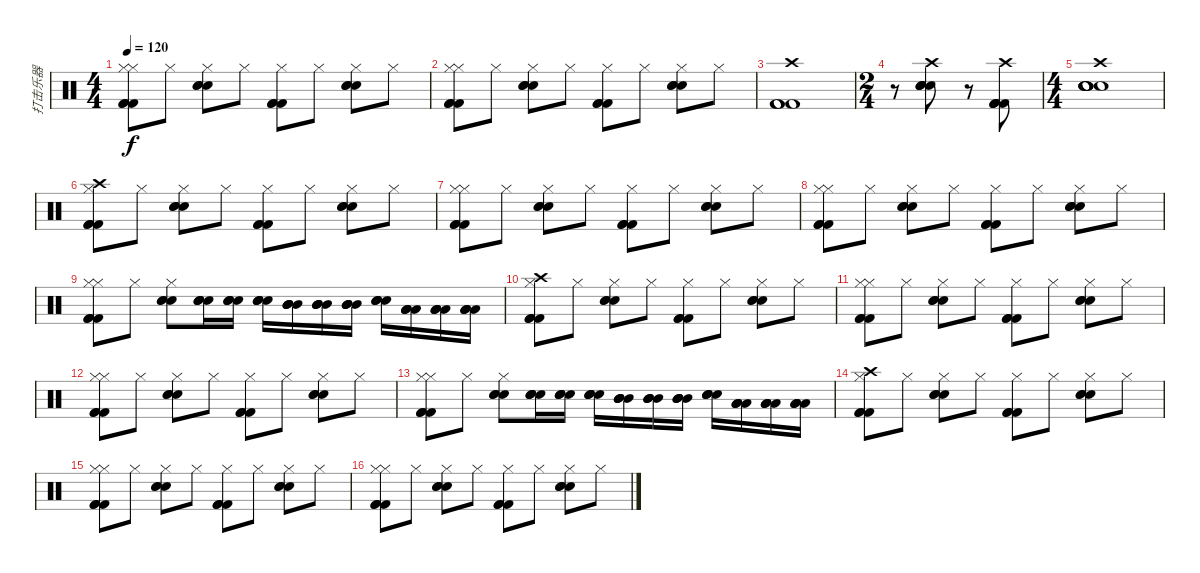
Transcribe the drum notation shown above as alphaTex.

\track ("打击乐器" "打击乐器") {instrument percussion}
\staff {score}
\articulation defaults
\ts (4 4)
\tempo 120
\clef neutral
\ks c
("Kick (hit) 2" "Kick (hit) 2" "Kick (hit) 2" "Hi-Hat (closed)" "Hi-Hat (closed)").8{dy f} "Hi-Hat (closed)".8 ("Snare (hit) 2" "Snare (hit) 2" "Snare (hit) 2" "Hi-Hat (closed)").8 "Hi-Hat (closed)".8 ("Kick (hit) 2" "Kick (hit) 2" "Kick (hit) 2" "Hi-Hat (closed)").8 "Hi-Hat (closed)".8 ("Snare (hit) 2" "Snare (hit) 2" "Snare (hit) 2" "Hi-Hat (closed)").8 "Hi-Hat (closed)".8 |
("Kick (hit) 2" "Kick (hit) 2" "Kick (hit) 2" "Hi-Hat (closed)" "Hi-Hat (closed)").8 "Hi-Hat (closed)".8 ("Snare (hit) 2" "Snare (hit) 2" "Snare (hit) 2" "Hi-Hat (closed)").8 "Hi-Hat (closed)".8 ("Kick (hit) 2" "Kick (hit) 2" "Kick (hit) 2" "Hi-Hat (closed)").8 "Hi-Hat (closed)".8 ("Snare (hit) 2" "Snare (hit) 2" "Snare (hit) 2" "Hi-Hat (closed)").8 "Hi-Hat (closed)".8 |
("Kick (hit) 2" "Kick (hit) 2" "Kick (hit) 2" "Crash high (hit)").1 |
\ts (2 4)
r.8 ("Snare (hit) 2" "Snare (hit) 2" "Snare (hit) 2" "Snare (hit) 2" "Crash high (hit)").8 r.8 ("Kick (hit) 2" "Kick (hit) 2" "Kick (hit) 2" "Kick (hit) 2" "Crash high (hit)").8 |
\ts (4 4)
("Crash high (hit)" "Snare (hit) 2" "Snare (hit) 2" "Snare (hit) 2" "Snare (hit) 2" "Snare (hit) 2").1 |
("Kick (hit) 2" "Kick (hit) 2" "Kick (hit) 2" "Hi-Hat (closed)" "Crash high (hit)").8 "Hi-Hat (closed)".8 ("Snare (hit) 2" "Snare (hit) 2" "Snare (hit) 2" "Hi-Hat (closed)").8 "Hi-Hat (closed)".8 ("Kick (hit) 2" "Kick (hit) 2" "Kick (hit) 2" "Hi-Hat (closed)").8 "Hi-Hat (closed)".8 ("Snare (hit) 2" "Snare (hit) 2" "Snare (hit) 2" "Hi-Hat (closed)").8 "Hi-Hat (closed)".8 |
("Kick (hit) 2" "Kick (hit) 2" "Kick (hit) 2" "Hi-Hat (closed)" "Hi-Hat (closed)").8 "Hi-Hat (closed)".8 ("Snare (hit) 2" "Snare (hit) 2" "Snare (hit) 2" "Hi-Hat (closed)").8 "Hi-Hat (closed)".8 ("Kick (hit) 2" "Kick (hit) 2" "Kick (hit) 2" "Hi-Hat (closed)").8 "Hi-Hat (closed)".8 ("Snare (hit) 2" "Snare (hit) 2" "Snare (hit) 2" "Hi-Hat (closed)").8 "Hi-Hat (closed)".8 |
("Kick (hit) 2" "Kick (hit) 2" "Kick (hit) 2" "Hi-Hat (closed)" "Hi-Hat (closed)").8 "Hi-Hat (closed)".8 ("Snare (hit) 2" "Snare (hit) 2" "Snare (hit) 2" "Hi-Hat (closed)").8 "Hi-Hat (closed)".8 ("Kick (hit) 2" "Kick (hit) 2" "Kick (hit) 2" "Hi-Hat (closed)").8 "Hi-Hat (closed)".8 ("Snare (hit) 2" "Snare (hit) 2" "Snare (hit) 2" "Hi-Hat (closed)").8 "Hi-Hat (closed)".8 |
("Kick (hit) 2" "Kick (hit) 2" "Kick (hit) 2" "Hi-Hat (closed)" "Hi-Hat (closed)").8 "Hi-Hat (closed)".8 ("Snare (hit) 2" "Snare (hit) 2" "Snare (hit) 2" "Hi-Hat (closed)").8 ("Snare (hit) 2" "Snare (hit) 2" "Snare (hit) 2" "Snare (hit) 2").16 ("Snare (hit) 2" "Snare (hit) 2" "Snare (hit) 2" "Snare (hit) 2").16 ("Snare (hit) 2" "Snare (hit) 2" "Snare (hit) 2" "Snare (hit) 2").16 ("Mid Tom (hit)" "Mid Tom (hit)" "Mid Tom (hit)" "Mid Tom (hit)").16 ("Mid Tom (hit)" "Mid Tom (hit)" "Mid Tom (hit)" "Mid Tom (hit)").16 ("Mid Tom (hit)" "Mid Tom (hit)" "Mid Tom (hit)" "Mid Tom (hit)").16 ("Snare (hit) 2" "Snare (hit) 2" "Snare (hit) 2" "Snare (hit) 2").16 ("Low Tom (hit)" "Low Tom (hit)" "Low Tom (hit)" "Low Tom (hit)").16 ("Low Tom (hit)" "Low Tom (hit)" "Low Tom (hit)" "Low Tom (hit)").16 ("Low Tom (hit)" "Low Tom (hit)" "Low Tom (hit)" "Low Tom (hit)").16 |
("Kick (hit) 2" "Kick (hit) 2" "Kick (hit) 2" "Hi-Hat (closed)" "Crash high (hit)").8 "Hi-Hat (closed)".8 ("Snare (hit) 2" "Snare (hit) 2" "Snare (hit) 2" "Hi-Hat (closed)").8 "Hi-Hat (closed)".8 ("Kick (hit) 2" "Kick (hit) 2" "Kick (hit) 2" "Hi-Hat (closed)").8 "Hi-Hat (closed)".8 ("Snare (hit) 2" "Snare (hit) 2" "Snare (hit) 2" "Hi-Hat (closed)").8 "Hi-Hat (closed)".8 |
("Kick (hit) 2" "Kick (hit) 2" "Kick (hit) 2" "Hi-Hat (closed)" "Hi-Hat (closed)").8 "Hi-Hat (closed)".8 ("Snare (hit) 2" "Snare (hit) 2" "Snare (hit) 2" "Hi-Hat (closed)").8 "Hi-Hat (closed)".8 ("Kick (hit) 2" "Kick (hit) 2" "Kick (hit) 2" "Hi-Hat (closed)").8 "Hi-Hat (closed)".8 ("Snare (hit) 2" "Snare (hit) 2" "Snare (hit) 2" "Hi-Hat (closed)").8 "Hi-Hat (closed)".8 |
("Kick (hit) 2" "Kick (hit) 2" "Kick (hit) 2" "Hi-Hat (closed)" "Hi-Hat (closed)").8 "Hi-Hat (closed)".8 ("Snare (hit) 2" "Snare (hit) 2" "Snare (hit) 2" "Hi-Hat (closed)").8 "Hi-Hat (closed)".8 ("Kick (hit) 2" "Kick (hit) 2" "Kick (hit) 2" "Hi-Hat (closed)").8 "Hi-Hat (closed)".8 ("Snare (hit) 2" "Snare (hit) 2" "Snare (hit) 2" "Hi-Hat (closed)").8 "Hi-Hat (closed)".8 |
("Kick (hit) 2" "Kick (hit) 2" "Kick (hit) 2" "Hi-Hat (closed)" "Hi-Hat (closed)").8 "Hi-Hat (closed)".8 ("Snare (hit) 2" "Snare (hit) 2" "Snare (hit) 2" "Hi-Hat (closed)").8 ("Snare (hit) 2" "Snare (hit) 2" "Snare (hit) 2" "Snare (hit) 2").16 ("Snare (hit) 2" "Snare (hit) 2" "Snare (hit) 2" "Snare (hit) 2").16 ("Snare (hit) 2" "Snare (hit) 2" "Snare (hit) 2" "Snare (hit) 2").16 ("Mid Tom (hit)" "Mid Tom (hit)" "Mid Tom (hit)" "Mid Tom (hit)").16 ("Mid Tom (hit)" "Mid Tom (hit)" "Mid Tom (hit)" "Mid Tom (hit)").16 ("Mid Tom (hit)" "Mid Tom (hit)" "Mid Tom (hit)" "Mid Tom (hit)").16 ("Snare (hit) 2" "Snare (hit) 2" "Snare (hit) 2" "Snare (hit) 2").16 ("Low Tom (hit)" "Low Tom (hit)" "Low Tom (hit)" "Low Tom (hit)").16 ("Low Tom (hit)" "Low Tom (hit)" "Low Tom (hit)" "Low Tom (hit)").16 ("Low Tom (hit)" "Low Tom (hit)" "Low Tom (hit)" "Low Tom (hit)").16 |
("Kick (hit) 2" "Kick (hit) 2" "Kick (hit) 2" "Hi-Hat (closed)" "Crash high (hit)").8 "Hi-Hat (closed)".8 ("Snare (hit) 2" "Snare (hit) 2" "Snare (hit) 2" "Hi-Hat (closed)").8 "Hi-Hat (closed)".8 ("Kick (hit) 2" "Kick (hit) 2" "Kick (hit) 2" "Hi-Hat (closed)").8 "Hi-Hat (closed)".8 ("Snare (hit) 2" "Snare (hit) 2" "Snare (hit) 2" "Hi-Hat (closed)").8 "Hi-Hat (closed)".8 |
("Kick (hit) 2" "Kick (hit) 2" "Kick (hit) 2" "Hi-Hat (closed)" "Hi-Hat (closed)").8 "Hi-Hat (closed)".8 ("Snare (hit) 2" "Snare (hit) 2" "Snare (hit) 2" "Hi-Hat (closed)").8 "Hi-Hat (closed)".8 ("Kick (hit) 2" "Kick (hit) 2" "Kick (hit) 2" "Hi-Hat (closed)").8 "Hi-Hat (closed)".8 ("Snare (hit) 2" "Snare (hit) 2" "Snare (hit) 2" "Hi-Hat (closed)").8 "Hi-Hat (closed)".8 |
("Kick (hit) 2" "Kick (hit) 2" "Kick (hit) 2" "Hi-Hat (closed)" "Hi-Hat (closed)").8 "Hi-Hat (closed)".8 ("Snare (hit) 2" "Snare (hit) 2" "Snare (hit) 2" "Hi-Hat (closed)").8 "Hi-Hat (closed)".8 ("Kick (hit) 2" "Kick (hit) 2" "Kick (hit) 2" "Hi-Hat (closed)").8 "Hi-Hat (closed)".8 ("Snare (hit) 2" "Snare (hit) 2" "Snare (hit) 2" "Hi-Hat (closed)").8 "Hi-Hat (closed)".8
